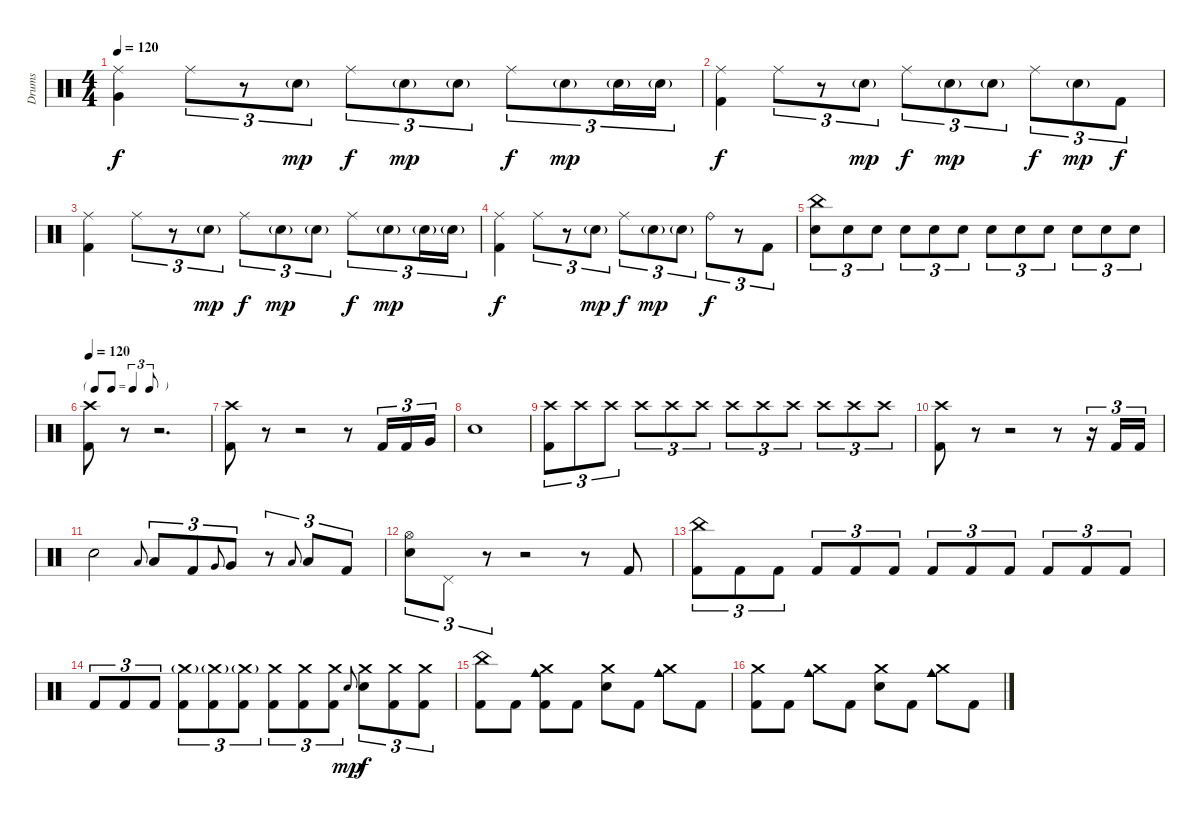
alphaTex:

\track ("Drums" "Drums") {instrument percussion}
\staff {score}
\articulation defaults
\ts (4 4)
\tempo 120
\clef neutral
\ks c
("Ride (middle)" "Very Low Tom (hit)").4{dy f} "Ride (middle)".8{tu (3 2)} r.8{tu (3 2)} "Snare (hit) 2"{g}.8{tu (3 2) dy mp} "Ride (middle)".8{tu (3 2) dy f} "Snare (hit) 2"{g}.8{tu (3 2) dy mp} "Snare (hit) 2"{g}.8{tu (3 2)} "Ride (middle)".8{tu (3 2) dy f} "Snare (hit) 2"{g}.8{tu (3 2) dy mp} "Snare (hit) 2"{g}.16{tu (3 2)} "Snare (hit) 2"{g}.16{tu (3 2)} |
("Ride (middle)" "Kick (hit) 2").4{dy f} "Ride (middle)".8{tu (3 2)} r.8{tu (3 2)} "Snare (hit) 2"{g}.8{tu (3 2) dy mp} "Ride (middle)".8{tu (3 2) dy f} "Snare (hit) 2"{g}.8{tu (3 2) dy mp} "Snare (hit) 2"{g}.8{tu (3 2)} "Ride (middle)".8{tu (3 2) dy f} "Snare (hit) 2"{g}.8{tu (3 2) dy mp} "Kick (hit) 2".8{tu (3 2) dy f} |
("Ride (middle)" "Kick (hit) 2").4 "Ride (middle)".8{tu (3 2)} r.8{tu (3 2)} "Snare (hit) 2"{g}.8{tu (3 2) dy mp} "Ride (middle)".8{tu (3 2) dy f} "Snare (hit) 2"{g}.8{tu (3 2) dy mp} "Snare (hit) 2"{g}.8{tu (3 2)} "Ride (middle)".8{tu (3 2) dy f} "Snare (hit) 2"{g}.8{tu (3 2) dy mp} "Snare (hit) 2"{g}.16{tu (3 2)} "Snare (hit) 2"{g}.16{tu (3 2)} |
("Ride (middle)" "Kick (hit) 2").4{dy f} "Ride (middle)".8{tu (3 2)} r.8{tu (3 2)} "Snare (hit) 2"{g}.8{tu (3 2) dy mp} "Ride (middle)".8{tu (3 2) dy f} "Snare (hit) 2"{g}.8{tu (3 2) dy mp} "Snare (hit) 2"{g}.8{tu (3 2)} "Ride (bell)".8{tu (3 2) dy f} r.8{tu (3 2)} "Kick (hit) 2".8{tu (3 2)} |
("China (hit)" "Electric Snare (hit)").8{tu (3 2)} "Electric Snare (hit)".8{tu (3 2)} "Electric Snare (hit)".8{tu (3 2)} "Electric Snare (hit)".8{tu (3 2)} "Electric Snare (hit)".8{tu (3 2)} "Electric Snare (hit)".8{tu (3 2)} "Electric Snare (hit)".8{tu (3 2)} "Electric Snare (hit)".8{tu (3 2)} "Electric Snare (hit)".8{tu (3 2)} "Electric Snare (hit)".8{tu (3 2)} "Electric Snare (hit)".8{tu (3 2)} "Electric Snare (hit)".8{tu (3 2)} |
\tf triplet8th
\tempo 120
("Crash high (hit)" "Kick (hit) 2").8{volume 13} r.8{volume 0} r.2{d} |
("Crash high (hit)" "Kick (hit) 2").8{volume 13} r.8{volume 0} r.2 r.8{volume 13} "Kick (hit) 2".16{tu (3 2)} "Kick (hit) 2".16{tu (3 2)} "Very Low Tom (hit)".16{tu (3 2)} |
"Electric Snare (hit)".1 |
("Crash high (hit)" "Kick (hit) 2").8{tu (3 2)} "Crash high (hit)".8{tu (3 2)} "Crash high (hit)".8{tu (3 2)} "Crash high (hit)".8{tu (3 2)} "Crash high (hit)".8{tu (3 2)} "Crash high (hit)".8{tu (3 2)} "Crash high (hit)".8{tu (3 2)} "Crash high (hit)".8{tu (3 2)} "Crash high (hit)".8{tu (3 2)} "Crash high (hit)".8{tu (3 2)} "Crash high (hit)".8{tu (3 2)} "Crash high (hit)".8{tu (3 2)} |
("Crash high (hit)" "Kick (hit) 2").8 r.8{volume 0} r.2 r.8{volume 13} r.16{tu (3 2)} "Kick (hit) 2".16{tu (3 2)} "Kick (hit) 2".16{tu (3 2)} |
"Electric Snare (hit)".2 "Low Tom (hit)".8{gr onbeat} "Low Tom (hit)".8{tu (3 2)} "Kick (hit) 2".8{tu (3 2)} "Very Low Tom (hit)".8{gr onbeat} "Very Low Tom (hit)".8{tu (3 2)} r.8{tu (3 2)} "Low Floor Tom (hit)".8{gr onbeat} "Low Floor Tom (hit)".8{tu (3 2)} "Kick (hit) 2".8{tu (3 2)} |
("Hi-Hat (open)" "Electric Snare (hit)").8{tu (3 2)} "Pedal Hi-Hat (hit)".8{tu (3 2)} r.8{tu (3 2)} r.2 r.8 "Kick (hit) 2".8 |
("China (hit)" "Kick (hit) 2").8{tu (3 2)} "Kick (hit) 2".8{tu (3 2)} "Kick (hit) 2".8{tu (3 2)} "Kick (hit) 2".8{tu (3 2)} "Kick (hit) 2".8{tu (3 2)} "Kick (hit) 2".8{tu (3 2)} "Kick (hit) 2".8{tu (3 2)} "Kick (hit) 2".8{tu (3 2)} "Kick (hit) 2".8{tu (3 2)} "Kick (hit) 2".8{tu (3 2)} "Kick (hit) 2".8{tu (3 2)} "Kick (hit) 2".8{tu (3 2)} |
"Kick (hit) 2".8{tu (3 2)} "Kick (hit) 2".8{tu (3 2)} "Kick (hit) 2".8{tu (3 2)} ("Crash medium (hit)"{g} "Kick (hit) 2").8{tu (3 2)} ("Crash medium (hit)"{g} "Kick (hit) 2").8{tu (3 2)} ("Crash medium (hit)"{g} "Kick (hit) 2").8{tu (3 2)} ("Crash medium (hit)" "Kick (hit) 2").8{tu (3 2)} ("Crash medium (hit)" "Kick (hit) 2").8{tu (3 2)} ("Crash medium (hit)" "Kick (hit) 2").8{tu (3 2)} "Electric Snare (hit)".8{gr onbeat dy mp} ("Crash medium (hit)" "Electric Snare (hit)").8{tu (3 2) dy f} ("Crash medium (hit)" "Kick (hit) 2").8{tu (3 2)} ("Crash medium (hit)" "Kick (hit) 2").8{tu (3 2)} |
("China (hit)" "Kick (hit) 2").8 "Kick (hit) 2".8 ("Crash medium (hit)" "Cowbell medium (hit)" "Kick (hit) 2").8 "Kick (hit) 2".8 ("Crash medium (hit)" "Electric Snare (hit)").8 "Kick (hit) 2".8 ("Crash medium (hit)" "Cowbell medium (hit)").8 "Kick (hit) 2".8 |
("Crash medium (hit)" "Kick (hit) 2").8 "Kick (hit) 2".8 ("Crash medium (hit)" "Cowbell medium (hit)").8 "Kick (hit) 2".8 ("Crash medium (hit)" "Electric Snare (hit)").8 "Kick (hit) 2".8 ("Crash medium (hit)" "Cowbell medium (hit)").8 "Kick (hit) 2".8
